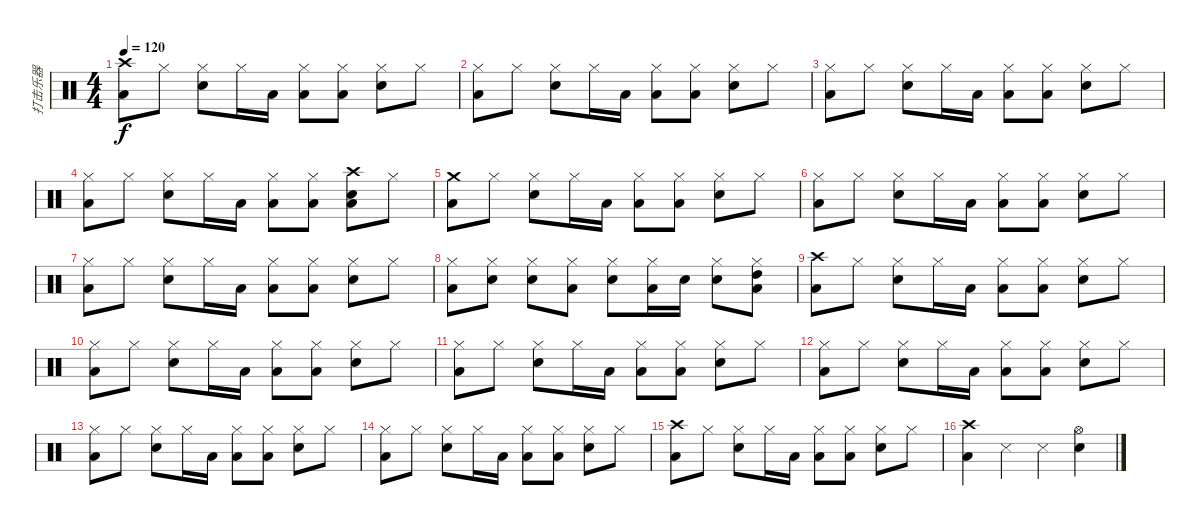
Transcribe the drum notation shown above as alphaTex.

\track ("打击乐器" "打击乐器") {instrument percussion}
\staff {score}
\articulation defaults
\ts (4 4)
\tempo 120
\clef neutral
\ks c
("Crash high (hit)" "Low Floor Tom (hit)").8{dy f} "Hi-Hat (closed)".8 ("Hi-Hat (closed)" "Electric Snare (hit)").8 "Hi-Hat (closed)".16 "Low Floor Tom (hit)".16 ("Hi-Hat (closed)" "Low Floor Tom (hit)").8 ("Hi-Hat (closed)" "Low Floor Tom (hit)").8 ("Hi-Hat (closed)" "Electric Snare (hit)").8 "Hi-Hat (closed)".8 |
("Hi-Hat (closed)" "Low Floor Tom (hit)").8 "Hi-Hat (closed)".8 ("Hi-Hat (closed)" "Electric Snare (hit)").8 "Hi-Hat (closed)".16 "Low Floor Tom (hit)".16 ("Hi-Hat (closed)" "Low Floor Tom (hit)").8 ("Hi-Hat (closed)" "Low Floor Tom (hit)").8 ("Hi-Hat (closed)" "Electric Snare (hit)").8 "Hi-Hat (closed)".8 |
("Hi-Hat (closed)" "Low Floor Tom (hit)").8 "Hi-Hat (closed)".8 ("Hi-Hat (closed)" "Electric Snare (hit)").8 "Hi-Hat (closed)".16 "Low Floor Tom (hit)".16 ("Hi-Hat (closed)" "Low Floor Tom (hit)").8 ("Hi-Hat (closed)" "Low Floor Tom (hit)").8 ("Hi-Hat (closed)" "Electric Snare (hit)").8 "Hi-Hat (closed)".8 |
("Hi-Hat (closed)" "Low Floor Tom (hit)").8 "Hi-Hat (closed)".8 ("Hi-Hat (closed)" "Electric Snare (hit)").8 "Hi-Hat (closed)".16 "Low Floor Tom (hit)".16 ("Hi-Hat (closed)" "Low Floor Tom (hit)").8 ("Hi-Hat (closed)" "Low Floor Tom (hit)").8 ("Crash high (hit)" "Electric Snare (hit)" "Low Floor Tom (hit)").8 "Hi-Hat (closed)".8 |
("Crash medium (hit)" "Low Floor Tom (hit)").8 "Hi-Hat (closed)".8 ("Hi-Hat (closed)" "Electric Snare (hit)").8 "Hi-Hat (closed)".16 "Low Floor Tom (hit)".16 ("Hi-Hat (closed)" "Low Floor Tom (hit)").8 ("Hi-Hat (closed)" "Low Floor Tom (hit)").8 ("Hi-Hat (closed)" "Electric Snare (hit)").8 "Hi-Hat (closed)".8 |
("Hi-Hat (closed)" "Low Floor Tom (hit)").8 "Hi-Hat (closed)".8 ("Hi-Hat (closed)" "Electric Snare (hit)").8 "Hi-Hat (closed)".16 "Low Floor Tom (hit)".16 ("Hi-Hat (closed)" "Low Floor Tom (hit)").8 ("Hi-Hat (closed)" "Low Floor Tom (hit)").8 ("Hi-Hat (closed)" "Electric Snare (hit)").8 "Hi-Hat (closed)".8 |
("Hi-Hat (closed)" "Low Floor Tom (hit)").8 "Hi-Hat (closed)".8 ("Hi-Hat (closed)" "Electric Snare (hit)").8 "Hi-Hat (closed)".16 "Low Floor Tom (hit)".16 ("Hi-Hat (closed)" "Low Floor Tom (hit)").8 ("Hi-Hat (closed)" "Low Floor Tom (hit)").8 ("Hi-Hat (closed)" "Electric Snare (hit)").8 "Hi-Hat (closed)".8 |
("Hi-Hat (closed)" "Low Floor Tom (hit)").8 ("Hi-Hat (closed)" "Electric Snare (hit)").8 ("Hi-Hat (closed)" "Electric Snare (hit)").8 ("Hi-Hat (closed)" "Low Floor Tom (hit)").8 ("Hi-Hat (closed)" "Electric Snare (hit)").8 ("Hi-Hat (closed)" "Low Floor Tom (hit)").16 "Electric Snare (hit)".16 ("Hi-Hat (closed)" "Electric Snare (hit)").8 ("Hi-Hat (closed)" "High Tom (hit)" "Low Floor Tom (hit)").8 |
("Crash high (hit)" "Low Floor Tom (hit)").8 "Hi-Hat (closed)".8 ("Hi-Hat (closed)" "Electric Snare (hit)").8 "Hi-Hat (closed)".16 "Low Floor Tom (hit)".16 ("Hi-Hat (closed)" "Low Floor Tom (hit)").8 ("Hi-Hat (closed)" "Low Floor Tom (hit)").8 ("Hi-Hat (closed)" "Electric Snare (hit)").8 "Hi-Hat (closed)".8 |
("Hi-Hat (closed)" "Low Floor Tom (hit)").8 "Hi-Hat (closed)".8 ("Hi-Hat (closed)" "Electric Snare (hit)").8 "Hi-Hat (closed)".16 "Low Floor Tom (hit)".16 ("Hi-Hat (closed)" "Low Floor Tom (hit)").8 ("Hi-Hat (closed)" "Low Floor Tom (hit)").8 ("Hi-Hat (closed)" "Electric Snare (hit)").8 "Hi-Hat (closed)".8 |
("Hi-Hat (closed)" "Low Floor Tom (hit)").8 "Hi-Hat (closed)".8 ("Hi-Hat (closed)" "Electric Snare (hit)").8 "Hi-Hat (closed)".16 "Low Floor Tom (hit)".16 ("Hi-Hat (closed)" "Low Floor Tom (hit)").8 ("Hi-Hat (closed)" "Low Floor Tom (hit)").8 ("Hi-Hat (closed)" "Electric Snare (hit)").8 "Hi-Hat (closed)".8 |
("Hi-Hat (closed)" "Low Floor Tom (hit)").8 "Hi-Hat (closed)".8 ("Hi-Hat (closed)" "Electric Snare (hit)").8 "Hi-Hat (closed)".16 "Low Floor Tom (hit)".16 ("Hi-Hat (closed)" "Low Floor Tom (hit)").8 ("Hi-Hat (closed)" "Low Floor Tom (hit)").8 ("Hi-Hat (closed)" "Electric Snare (hit)").8 "Hi-Hat (closed)".8 |
("Hi-Hat (closed)" "Low Floor Tom (hit)").8 "Hi-Hat (closed)".8 ("Hi-Hat (closed)" "Electric Snare (hit)").8 "Hi-Hat (closed)".16 "Low Floor Tom (hit)".16 ("Hi-Hat (closed)" "Low Floor Tom (hit)").8 ("Hi-Hat (closed)" "Low Floor Tom (hit)").8 ("Hi-Hat (closed)" "Electric Snare (hit)").8 "Hi-Hat (closed)".8 |
("Hi-Hat (closed)" "Low Floor Tom (hit)").8 "Hi-Hat (closed)".8 ("Hi-Hat (closed)" "Electric Snare (hit)").8 "Hi-Hat (closed)".16 "Low Floor Tom (hit)".16 ("Hi-Hat (closed)" "Low Floor Tom (hit)").8 ("Hi-Hat (closed)" "Low Floor Tom (hit)").8 ("Hi-Hat (closed)" "Electric Snare (hit)").8 "Hi-Hat (closed)".8 |
("Crash high (hit)" "Low Floor Tom (hit)").8 "Hi-Hat (closed)".8 ("Hi-Hat (closed)" "Electric Snare (hit)").8 "Hi-Hat (closed)".16 "Low Floor Tom (hit)".16 ("Hi-Hat (closed)" "Low Floor Tom (hit)").8 ("Hi-Hat (closed)" "Low Floor Tom (hit)").8 ("Hi-Hat (closed)" "Electric Snare (hit)").8 "Hi-Hat (closed)".8 |
("Crash high (hit)" "Low Floor Tom (hit)").4 "Metronome (hit)".4 "Metronome (hit)".4 ("Hi-Hat (open)" "Electric Snare (hit)").4
